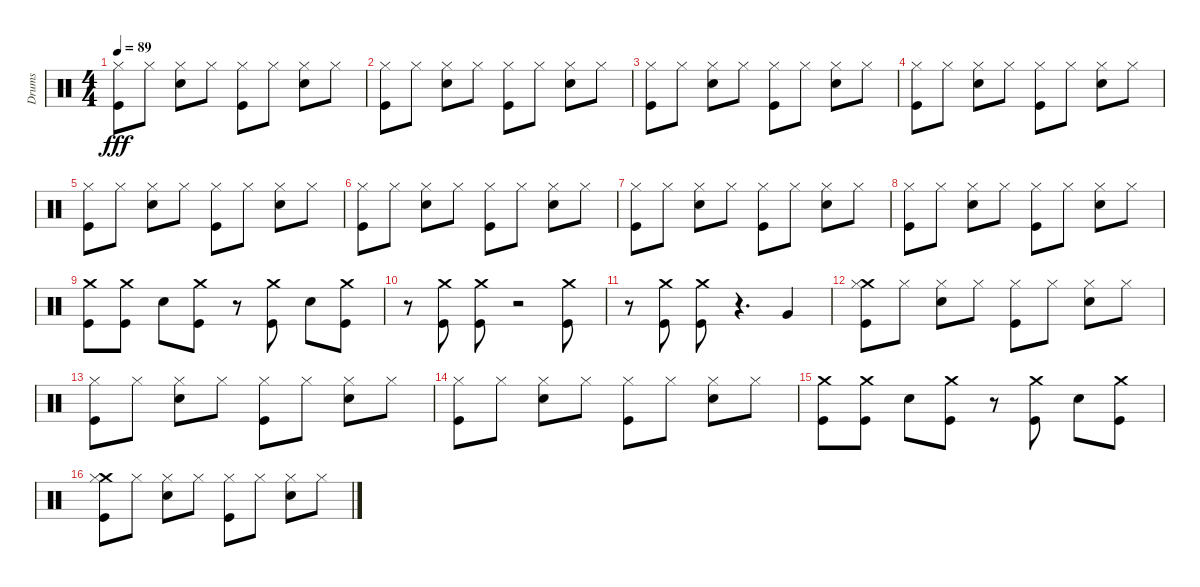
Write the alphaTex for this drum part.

\track ("Drums" "Drums") {instrument percussion}
\staff {score}
\articulation defaults
\ts (4 4)
\tempo 89
\clef neutral
\ks c
("Kick (hit)" "Hi-Hat (closed)").8{dy fff} "Hi-Hat (closed)".8 ("Snare (hit) 2" "Hi-Hat (closed)").8 "Hi-Hat (closed)".8 ("Kick (hit)" "Hi-Hat (closed)").8 "Hi-Hat (closed)".8 ("Snare (hit) 2" "Hi-Hat (closed)").8 "Hi-Hat (closed)".8 |
("Kick (hit)" "Hi-Hat (closed)").8 "Hi-Hat (closed)".8 ("Snare (hit) 2" "Hi-Hat (closed)").8 "Hi-Hat (closed)".8 ("Kick (hit)" "Hi-Hat (closed)").8 "Hi-Hat (closed)".8 ("Snare (hit) 2" "Hi-Hat (closed)").8 "Hi-Hat (closed)".8 |
("Kick (hit)" "Hi-Hat (closed)").8 "Hi-Hat (closed)".8 ("Snare (hit) 2" "Hi-Hat (closed)").8 "Hi-Hat (closed)".8 ("Kick (hit)" "Hi-Hat (closed)").8 "Hi-Hat (closed)".8 ("Snare (hit) 2" "Hi-Hat (closed)").8 "Hi-Hat (closed)".8 |
("Kick (hit)" "Hi-Hat (closed)").8 "Hi-Hat (closed)".8 ("Snare (hit) 2" "Hi-Hat (closed)").8 "Hi-Hat (closed)".8 ("Kick (hit)" "Hi-Hat (closed)").8 "Hi-Hat (closed)".8 ("Snare (hit) 2" "Hi-Hat (closed)").8 "Hi-Hat (closed)".8 |
("Kick (hit)" "Hi-Hat (closed)").8 "Hi-Hat (closed)".8 ("Snare (hit) 2" "Hi-Hat (closed)").8 "Hi-Hat (closed)".8 ("Kick (hit)" "Hi-Hat (closed)").8 "Hi-Hat (closed)".8 ("Snare (hit) 2" "Hi-Hat (closed)").8 "Hi-Hat (closed)".8 |
("Kick (hit)" "Hi-Hat (closed)").8 "Hi-Hat (closed)".8 ("Snare (hit) 2" "Hi-Hat (closed)").8 "Hi-Hat (closed)".8 ("Kick (hit)" "Hi-Hat (closed)").8 "Hi-Hat (closed)".8 ("Snare (hit) 2" "Hi-Hat (closed)").8 "Hi-Hat (closed)".8 |
("Kick (hit)" "Hi-Hat (closed)").8 "Hi-Hat (closed)".8 ("Snare (hit) 2" "Hi-Hat (closed)").8 "Hi-Hat (closed)".8 ("Kick (hit)" "Hi-Hat (closed)").8 "Hi-Hat (closed)".8 ("Snare (hit) 2" "Hi-Hat (closed)").8 "Hi-Hat (closed)".8 |
("Kick (hit)" "Hi-Hat (closed)").8 "Hi-Hat (closed)".8 ("Snare (hit) 2" "Hi-Hat (closed)").8 "Hi-Hat (closed)".8 ("Kick (hit)" "Hi-Hat (closed)").8 "Hi-Hat (closed)".8 ("Snare (hit) 2" "Hi-Hat (closed)").8 "Hi-Hat (closed)".8 |
("Crash medium (hit)" "Kick (hit)").8 ("Crash medium (hit)" "Kick (hit)").8 "Snare (hit) 2".8 ("Crash medium (hit)" "Kick (hit)").8 r.8 ("Crash medium (hit)" "Kick (hit)").8 "Snare (hit) 2".8 ("Crash medium (hit)" "Kick (hit)").8 |
r.8 ("Crash medium (hit)" "Kick (hit)").8 ("Crash medium (hit)" "Kick (hit)").8 r.2 ("Crash medium (hit)" "Kick (hit)").8 |
r.8 ("Crash medium (hit)" "Kick (hit)").8 ("Crash medium (hit)" "Kick (hit)").8 r.4{d} "Very Low Tom (hit)".4 |
("Crash medium (hit)" "Hi-Hat (closed)" "Kick (hit)").8 "Hi-Hat (closed)".8 ("Snare (hit) 2" "Hi-Hat (closed)").8 "Hi-Hat (closed)".8 ("Kick (hit)" "Hi-Hat (closed)").8 "Hi-Hat (closed)".8 ("Snare (hit) 2" "Hi-Hat (closed)").8 "Hi-Hat (closed)".8 |
("Kick (hit)" "Hi-Hat (closed)").8 "Hi-Hat (closed)".8 ("Snare (hit) 2" "Hi-Hat (closed)").8 "Hi-Hat (closed)".8 ("Kick (hit)" "Hi-Hat (closed)").8 "Hi-Hat (closed)".8 ("Snare (hit) 2" "Hi-Hat (closed)").8 "Hi-Hat (closed)".8 |
("Kick (hit)" "Hi-Hat (closed)").8 "Hi-Hat (closed)".8 ("Snare (hit) 2" "Hi-Hat (closed)").8 "Hi-Hat (closed)".8 ("Kick (hit)" "Hi-Hat (closed)").8 "Hi-Hat (closed)".8 ("Snare (hit) 2" "Hi-Hat (closed)").8 "Hi-Hat (closed)".8 |
("Crash medium (hit)" "Kick (hit)").8 ("Crash medium (hit)" "Kick (hit)").8 "Snare (hit) 2".8 ("Crash medium (hit)" "Kick (hit)").8 r.8 ("Crash medium (hit)" "Kick (hit)").8 "Snare (hit) 2".8 ("Crash medium (hit)" "Kick (hit)").8 |
("Crash medium (hit)" "Hi-Hat (closed)" "Kick (hit)").8 "Hi-Hat (closed)".8 ("Snare (hit) 2" "Hi-Hat (closed)").8 "Hi-Hat (closed)".8 ("Kick (hit)" "Hi-Hat (closed)").8 "Hi-Hat (closed)".8 ("Snare (hit) 2" "Hi-Hat (closed)").8 "Hi-Hat (closed)".8
